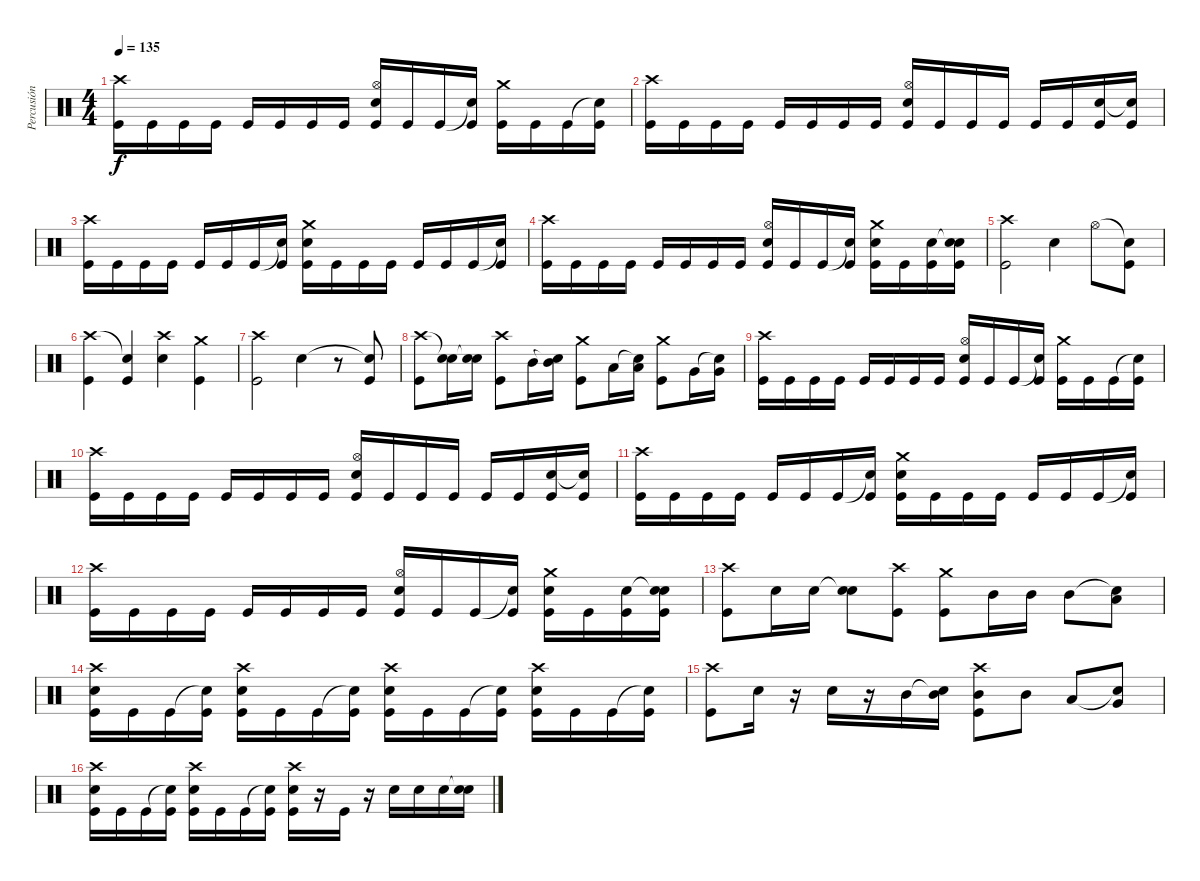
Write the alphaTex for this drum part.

\track ("Percusión" "Percusión") {instrument percussion}
\staff {score}
\articulation defaults
\ts (4 4)
\tempo 135
\clef neutral
\ks c
("Crash high (hit)" "Kick (hit)").16{dy f} "Kick (hit)".16 "Kick (hit)".16 "Kick (hit)".16 "Kick (hit)".16 "Kick (hit)".16 "Kick (hit)".16 "Kick (hit)".16 ("Hi-Hat (open)" "Snare (hit) 2" "Kick (hit)").16 "Kick (hit)".16 "Kick (hit)".16 ("Snare (hit)"{t} "Kick (hit)").16 ("Crash medium (hit)" "Kick (hit)").16 "Kick (hit)".16 "Kick (hit)".16 ("Snare (hit)"{t} "Kick (hit)").16 |
("Crash high (hit)" "Kick (hit)").16 "Kick (hit)".16 "Kick (hit)".16 "Kick (hit)".16 "Kick (hit)".16 "Kick (hit)".16 "Kick (hit)".16 "Kick (hit)".16 ("Hi-Hat (open)" "Snare (hit) 2" "Kick (hit)").16 "Kick (hit)".16 "Kick (hit)".16 "Kick (hit)".16 "Kick (hit)".16 "Kick (hit)".16 ("Snare (hit) 2" "Kick (hit)").16 ("Snare (hit)"{t} "Kick (hit)").16 |
("Crash high (hit)" "Kick (hit)").16 "Kick (hit)".16 "Kick (hit)".16 "Kick (hit)".16 "Kick (hit)".16 "Kick (hit)".16 "Kick (hit)".16 ("Snare (hit)"{t} "Kick (hit)").16 ("Crash medium (hit)" "Snare (hit) 2" "Kick (hit)").16 "Kick (hit)".16 "Kick (hit)".16 "Kick (hit)".16 "Kick (hit)".16 "Kick (hit)".16 "Kick (hit)".16 ("Snare (hit)"{t} "Kick (hit)").16 |
("Crash high (hit)" "Kick (hit)").16 "Kick (hit)".16 "Kick (hit)".16 "Kick (hit)".16 "Kick (hit)".16 "Kick (hit)".16 "Kick (hit)".16 "Kick (hit)".16 ("Hi-Hat (open)" "Snare (hit) 2" "Kick (hit)").16 "Kick (hit)".16 "Kick (hit)".16 ("Snare (hit)"{t} "Kick (hit)").16 ("Crash medium (hit)" "Snare (hit) 2" "Kick (hit)").16 "Kick (hit)".16 ("Snare (hit) 2" "Kick (hit)").16 ("Snare (hit)"{t} "Snare (hit) 2" "Kick (hit)").16 |
("Crash high (hit)" "Kick (hit)").2 "Snare (hit) 2".4 "Hi-Hat (open)".8 ("Snare (hit)"{t} "Kick (hit)").8 |
("Crash high (hit)" "Kick (hit)").4 ("Snare (hit)"{t} "Kick (hit)").4 ("Crash high (hit)" "Snare (hit) 2").4 ("Crash medium (hit)" "Kick (hit)").4 |
("Crash high (hit)" "Kick (hit)").2 "Snare (hit) 2".4 r.8 ("Snare (hit)"{t} "Kick (hit)").8 |
("Crash high (hit)" "Kick (hit)").8 ("Snare (hit)"{t} "Snare (hit) 2").16 ("Snare (hit)"{t} "Snare (hit) 2").16 ("Crash high (hit)" "Kick (hit)").8 "Mid Tom (hit)".16 ("Snare (hit)"{t} "Mid Tom (hit)").16 ("Crash medium (hit)" "Kick (hit)").8 "Low Tom (hit)".16 ("Snare (hit)"{t} "Low Tom (hit)").16 ("Crash medium (hit)" "Kick (hit)").8 "Very Low Tom (hit)".16 ("Snare (hit)"{t} "Very Low Tom (hit)").16 |
("Crash high (hit)" "Kick (hit)").16 "Kick (hit)".16 "Kick (hit)".16 "Kick (hit)".16 "Kick (hit)".16 "Kick (hit)".16 "Kick (hit)".16 "Kick (hit)".16 ("Hi-Hat (open)" "Snare (hit) 2" "Kick (hit)").16 "Kick (hit)".16 "Kick (hit)".16 ("Snare (hit)"{t} "Kick (hit)").16 ("Crash medium (hit)" "Kick (hit)").16 "Kick (hit)".16 "Kick (hit)".16 ("Snare (hit)"{t} "Kick (hit)").16 |
("Crash high (hit)" "Kick (hit)").16 "Kick (hit)".16 "Kick (hit)".16 "Kick (hit)".16 "Kick (hit)".16 "Kick (hit)".16 "Kick (hit)".16 "Kick (hit)".16 ("Hi-Hat (open)" "Snare (hit) 2" "Kick (hit)").16 "Kick (hit)".16 "Kick (hit)".16 "Kick (hit)".16 "Kick (hit)".16 "Kick (hit)".16 ("Snare (hit) 2" "Kick (hit)").16 ("Snare (hit)"{t} "Kick (hit)").16 |
("Crash high (hit)" "Kick (hit)").16 "Kick (hit)".16 "Kick (hit)".16 "Kick (hit)".16 "Kick (hit)".16 "Kick (hit)".16 "Kick (hit)".16 ("Snare (hit)"{t} "Kick (hit)").16 ("Crash medium (hit)" "Snare (hit) 2" "Kick (hit)").16 "Kick (hit)".16 "Kick (hit)".16 "Kick (hit)".16 "Kick (hit)".16 "Kick (hit)".16 "Kick (hit)".16 ("Snare (hit)"{t} "Kick (hit)").16 |
("Crash high (hit)" "Kick (hit)").16 "Kick (hit)".16 "Kick (hit)".16 "Kick (hit)".16 "Kick (hit)".16 "Kick (hit)".16 "Kick (hit)".16 "Kick (hit)".16 ("Hi-Hat (open)" "Snare (hit) 2" "Kick (hit)").16 "Kick (hit)".16 "Kick (hit)".16 ("Snare (hit)"{t} "Kick (hit)").16 ("Crash medium (hit)" "Snare (hit) 2" "Kick (hit)").16 "Kick (hit)".16 ("Snare (hit) 2" "Kick (hit)").16 ("Snare (hit)"{t} "Snare (hit) 2" "Kick (hit)").16 |
("Crash high (hit)" "Kick (hit)").8 "Snare (hit) 2".16 "Snare (hit) 2".16 ("Snare (hit)"{t} "Snare (hit) 2").8 ("Crash high (hit)" "Kick (hit)").8 ("Crash medium (hit)" "Kick (hit)").8 "Mid Tom (hit)".16 "Mid Tom (hit)".16 "Mid Tom (hit)".8 ("Snare (hit)"{t} "Low Tom (hit)").8 |
("Crash high (hit)" "Snare (hit) 2" "Kick (hit)").16 "Kick (hit)".16 "Kick (hit)".16 ("Snare (hit)"{t} "Kick (hit)").16 ("Crash high (hit)" "Snare (hit) 2" "Kick (hit)").16 "Kick (hit)".16 "Kick (hit)".16 ("Snare (hit)"{t} "Kick (hit)").16 ("Crash high (hit)" "Snare (hit) 2" "Kick (hit)").16 "Kick (hit)".16 "Kick (hit)".16 ("Snare (hit)"{t} "Kick (hit)").16 ("Crash high (hit)" "Snare (hit) 2" "Kick (hit)").16 "Kick (hit)".16 "Kick (hit)".16 ("Snare (hit)"{t} "Kick (hit)").16 |
("Crash high (hit)" "Kick (hit)").8 "Snare (hit) 2".16 r.16 "Snare (hit) 2".16 r.16 "Mid Tom (hit)".16 ("Snare (hit)"{t} "Mid Tom (hit)").16 ("Crash high (hit)" "Mid Tom (hit)" "Kick (hit)").8 "Mid Tom (hit)".8 "Low Tom (hit)".8 ("Snare (hit)"{t} "Very Low Tom (hit)").8 |
("Crash high (hit)" "Snare (hit) 2" "Kick (hit)").16 "Kick (hit)".16 "Kick (hit)".16 ("Snare (hit)"{t} "Kick (hit)").16 ("Crash high (hit)" "Snare (hit) 2" "Kick (hit)").16 "Kick (hit)".16 "Kick (hit)".16 ("Snare (hit)"{t} "Kick (hit)").16 ("Crash high (hit)" "Snare (hit) 2" "Kick (hit)").16 r.16 "Kick (hit)".16 r.16 "Snare (hit) 2".16 "Snare (hit) 2".16 "Snare (hit) 2".16 ("Snare (hit)"{t} "Snare (hit) 2").16
